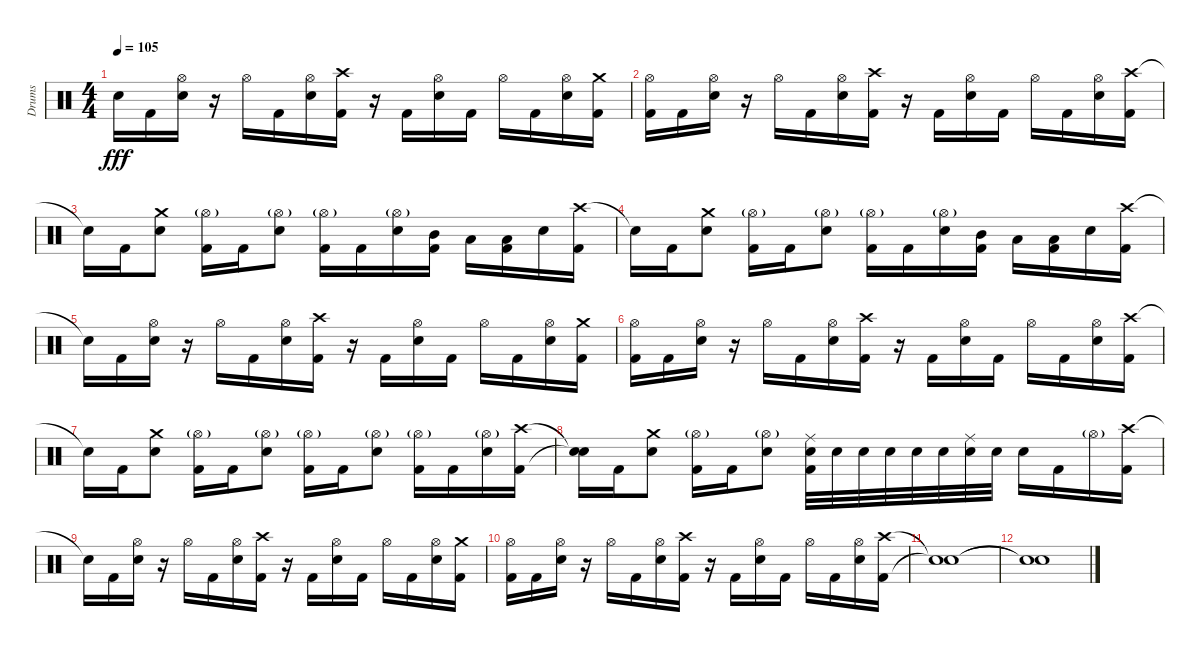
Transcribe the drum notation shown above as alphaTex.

\track ("Drums" "Drums") {instrument percussion}
\staff {score}
\articulation defaults
\ts (4 4)
\tempo 105
\clef neutral
\ks c "Snare (hit)"{t}.16{dy fff} "Kick (hit) 2".16
("Hi-Hat (open)" "Electric Snare (hit)").16 r.16 "Hi-Hat (open)".16 "Kick (hit) 2".16 ("Hi-Hat (open)" "Electric Snare (hit)").16 ("Crash high (hit)" "Kick (hit) 2").16 r.16 "Kick (hit) 2".16 ("Hi-Hat (open)" "Electric Snare (hit)").16 "Kick (hit) 2".16 "Hi-Hat (open)".16 "Kick (hit) 2".16 ("Hi-Hat (open)" "Electric Snare (hit)").16 ("Crash medium (hit)" "Kick (hit) 2").16 |
("Hi-Hat (open)" "Kick (hit) 2").16 "Kick (hit) 2".16 ("Hi-Hat (open)" "Electric Snare (hit)").16 r.16 "Hi-Hat (open)".16 "Kick (hit) 2".16 ("Hi-Hat (open)" "Electric Snare (hit)").16 ("Crash high (hit)" "Kick (hit) 2").16 r.16 "Kick (hit) 2".16 ("Hi-Hat (open)" "Electric Snare (hit)").16 "Kick (hit) 2".16 "Hi-Hat (open)".16 "Kick (hit) 2".16 ("Hi-Hat (open)" "Electric Snare (hit)").16 ("Crash high (hit)" "Kick (hit) 2").16 |
"Snare (hit)"{t}.16 "Kick (hit) 2".16 ("Crash medium (hit)" "Electric Snare (hit)").8 ("Hi-Hat (open)"{g} "Kick (hit) 2").16 "Kick (hit) 2".16 ("Hi-Hat (open)"{g} "Electric Snare (hit)").8 ("Hi-Hat (open)"{g} "Kick (hit) 2").16 "Kick (hit) 2".16 ("Hi-Hat (open)"{g} "Electric Snare (hit)").16 ("Mid Tom (hit)" "Kick (hit) 2").16 "Low Tom (hit)".16 ("Low Tom (hit)" "Kick (hit) 2").16 "Electric Snare (hit)".16 ("Crash high (hit)" "Kick (hit) 2").16 |
"Snare (hit)"{t}.16 "Kick (hit) 2".16 ("Crash medium (hit)" "Electric Snare (hit)").8 ("Hi-Hat (open)"{g} "Kick (hit) 2").16 "Kick (hit) 2".16 ("Hi-Hat (open)"{g} "Electric Snare (hit)").8 ("Hi-Hat (open)"{g} "Kick (hit) 2").16 "Kick (hit) 2".16 ("Hi-Hat (open)"{g} "Electric Snare (hit)").16 ("Mid Tom (hit)" "Kick (hit) 2").16 "Low Tom (hit)".16 ("Low Tom (hit)" "Kick (hit) 2").16 "Electric Snare (hit)".16 ("Crash high (hit)" "Kick (hit) 2").16 |
"Snare (hit)"{t}.16 "Kick (hit) 2".16 ("Hi-Hat (open)" "Electric Snare (hit)").16 r.16 "Hi-Hat (open)".16 "Kick (hit) 2".16 ("Hi-Hat (open)" "Electric Snare (hit)").16 ("Crash high (hit)" "Kick (hit) 2").16 r.16 "Kick (hit) 2".16 ("Hi-Hat (open)" "Electric Snare (hit)").16 "Kick (hit) 2".16 "Hi-Hat (open)".16 "Kick (hit) 2".16 ("Hi-Hat (open)" "Electric Snare (hit)").16 ("Crash medium (hit)" "Kick (hit) 2").16 |
("Hi-Hat (open)" "Kick (hit) 2").16 "Kick (hit) 2".16 ("Hi-Hat (open)" "Electric Snare (hit)").16 r.16 "Hi-Hat (open)".16 "Kick (hit) 2".16 ("Hi-Hat (open)" "Electric Snare (hit)").16 ("Crash high (hit)" "Kick (hit) 2").16 r.16 "Kick (hit) 2".16 ("Hi-Hat (open)" "Electric Snare (hit)").16 "Kick (hit) 2".16 "Hi-Hat (open)".16 "Kick (hit) 2".16 ("Hi-Hat (open)" "Electric Snare (hit)").16 ("Crash high (hit)" "Kick (hit) 2").16 |
"Snare (hit)"{t}.16 "Kick (hit) 2".16 ("Crash medium (hit)" "Electric Snare (hit)").8 ("Hi-Hat (open)"{g} "Kick (hit) 2").16 "Kick (hit) 2".16 ("Hi-Hat (open)"{g} "Electric Snare (hit)").8 ("Hi-Hat (open)"{g} "Kick (hit) 2").16 "Kick (hit) 2".16 ("Hi-Hat (open)"{g} "Electric Snare (hit)").8 ("Hi-Hat (open)"{g} "Kick (hit) 2").16 "Kick (hit) 2".16 ("Hi-Hat (open)"{g} "Electric Snare (hit)").16 ("Crash high (hit)" "Kick (hit) 2").16 |
("Snare (hit)"{t} "Snare (hit)"{t}).16 "Kick (hit) 2".16 ("Crash medium (hit)" "Electric Snare (hit)").8 ("Hi-Hat (open)"{g} "Kick (hit) 2").16 "Kick (hit) 2".16 ("Hi-Hat (open)"{g} "Electric Snare (hit)").8 ("Ride (middle)" "Electric Snare (hit)" "Kick (hit) 2").32 "Electric Snare (hit)".32 "Electric Snare (hit)".32 "Electric Snare (hit)".32 "Electric Snare (hit)".32 "Electric Snare (hit)".32 ("Ride (middle)" "Electric Snare (hit)").32 "Electric Snare (hit)".32 "Electric Snare (hit)".16 "Kick (hit) 2".16 "Hi-Hat (open)"{g}.16 ("Crash high (hit)" "Kick (hit) 2").16 |
"Snare (hit)"{t}.16 "Kick (hit) 2".16 ("Hi-Hat (open)" "Electric Snare (hit)").16 r.16 "Hi-Hat (open)".16 "Kick (hit) 2".16 ("Hi-Hat (open)" "Electric Snare (hit)").16 ("Crash high (hit)" "Kick (hit) 2").16 r.16 "Kick (hit) 2".16 ("Hi-Hat (open)" "Electric Snare (hit)").16 "Kick (hit) 2".16 "Hi-Hat (open)".16 "Kick (hit) 2".16 ("Hi-Hat (open)" "Electric Snare (hit)").16 ("Crash medium (hit)" "Kick (hit) 2").16 |
("Hi-Hat (open)" "Kick (hit) 2").16 "Kick (hit) 2".16 ("Hi-Hat (open)" "Electric Snare (hit)").16 r.16 "Hi-Hat (open)".16 "Kick (hit) 2".16 ("Hi-Hat (open)" "Electric Snare (hit)").16 ("Crash high (hit)" "Kick (hit) 2").16 r.16 "Kick (hit) 2".16 ("Hi-Hat (open)" "Electric Snare (hit)").16 "Kick (hit) 2".16 "Hi-Hat (open)".16 "Kick (hit) 2".16 ("Hi-Hat (open)" "Electric Snare (hit)").16 ("Crash high (hit)" "Kick (hit) 2").16 |
("Snare (hit)"{t} "Snare (hit)"{t}).1 |
("Snare (hit)"{t} "Snare (hit)"{t}).1
